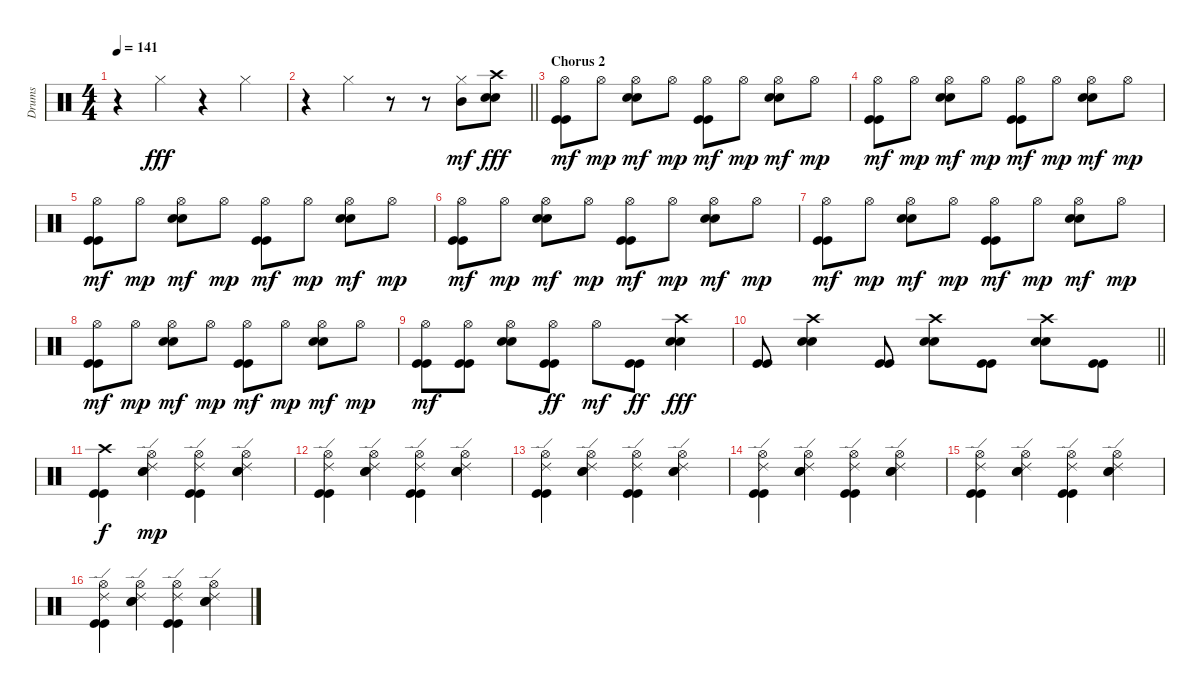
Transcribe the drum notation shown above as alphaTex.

\track ("Drums" "Drums") {instrument percussion}
\staff {score}
\articulation defaults
\ts (4 4)
\tempo 141
\clef neutral
\ks c
r.4{dy fff} "Hi-Hat (closed)".4 r.4 "Hi-Hat (closed)".4 |
\barLineRight lightlight
r.4 "Hi-Hat (closed)".4 r.8 r.8 ("Hi-Hat (closed)" "Mid Tom (hit)").8{dy mf} ("Crash high (hit)" "Snare (hit) 2" "Snare (hit) 2").8{dy fff} |
\section ("" "Chorus 2")
("Hi-Hat (open)" "Kick (hit)" "Kick (hit)").8{dy mf} "Hi-Hat (open)".8{dy mp} ("Hi-Hat (open)" "Snare (hit) 2" "Snare (hit) 2").8{dy mf} "Hi-Hat (open)".8{dy mp} ("Hi-Hat (open)" "Kick (hit)" "Kick (hit)").8{dy mf} "Hi-Hat (open)".8{dy mp} ("Hi-Hat (open)" "Snare (hit) 2" "Snare (hit) 2").8{dy mf} "Hi-Hat (open)".8{dy mp} |
("Hi-Hat (open)" "Kick (hit)" "Kick (hit)").8{dy mf} "Hi-Hat (open)".8{dy mp} ("Hi-Hat (open)" "Snare (hit) 2" "Snare (hit) 2").8{dy mf} "Hi-Hat (open)".8{dy mp} ("Hi-Hat (open)" "Kick (hit)" "Kick (hit)").8{dy mf} "Hi-Hat (open)".8{dy mp} ("Hi-Hat (open)" "Snare (hit) 2" "Snare (hit) 2").8{dy mf} "Hi-Hat (open)".8{dy mp} |
("Hi-Hat (open)" "Kick (hit)" "Kick (hit)").8{dy mf} "Hi-Hat (open)".8{dy mp} ("Hi-Hat (open)" "Snare (hit) 2" "Snare (hit) 2").8{dy mf} "Hi-Hat (open)".8{dy mp} ("Hi-Hat (open)" "Kick (hit)" "Kick (hit)").8{dy mf} "Hi-Hat (open)".8{dy mp} ("Hi-Hat (open)" "Snare (hit) 2" "Snare (hit) 2").8{dy mf} "Hi-Hat (open)".8{dy mp} |
("Hi-Hat (open)" "Kick (hit)" "Kick (hit)").8{dy mf} "Hi-Hat (open)".8{dy mp} ("Hi-Hat (open)" "Snare (hit) 2" "Snare (hit) 2").8{dy mf} "Hi-Hat (open)".8{dy mp} ("Hi-Hat (open)" "Kick (hit)" "Kick (hit)").8{dy mf} "Hi-Hat (open)".8{dy mp} ("Hi-Hat (open)" "Snare (hit) 2" "Snare (hit) 2").8{dy mf} "Hi-Hat (open)".8{dy mp} |
("Hi-Hat (open)" "Kick (hit)" "Kick (hit)").8{dy mf} "Hi-Hat (open)".8{dy mp} ("Hi-Hat (open)" "Snare (hit) 2" "Snare (hit) 2").8{dy mf} "Hi-Hat (open)".8{dy mp} ("Hi-Hat (open)" "Kick (hit)" "Kick (hit)").8{dy mf} "Hi-Hat (open)".8{dy mp} ("Hi-Hat (open)" "Snare (hit) 2" "Snare (hit) 2").8{dy mf} "Hi-Hat (open)".8{dy mp} |
("Hi-Hat (open)" "Kick (hit)" "Kick (hit)").8{dy mf} "Hi-Hat (open)".8{dy mp} ("Hi-Hat (open)" "Snare (hit) 2" "Snare (hit) 2").8{dy mf} "Hi-Hat (open)".8{dy mp} ("Hi-Hat (open)" "Kick (hit)" "Kick (hit)").8{dy mf} "Hi-Hat (open)".8{dy mp} ("Hi-Hat (open)" "Snare (hit) 2" "Snare (hit) 2").8{dy mf} "Hi-Hat (open)".8{dy mp} |
("Hi-Hat (open)" "Kick (hit)" "Kick (hit)").8{dy mf} ("Hi-Hat (open)" "Kick (hit)" "Kick (hit)").8 ("Hi-Hat (open)" "Snare (hit) 2" "Snare (hit) 2").8 ("Hi-Hat (open)" "Kick (hit)" "Kick (hit)").8{dy ff} "Hi-Hat (open)".8{dy mf} ("Kick (hit)" "Kick (hit)").8{dy ff} ("Crash high (hit)" "Snare (hit) 2" "Snare (hit) 2").4{dy fff} |
\barLineRight lightlight
("Kick (hit)" "Kick (hit)").8 ("Crash high (hit)" "Snare (hit) 2" "Snare (hit) 2").4 ("Kick (hit)" "Kick (hit)").8 ("Crash high (hit)" "Snare (hit) 2" "Snare (hit) 2").8 ("Kick (hit)" "Kick (hit)").8 ("Crash high (hit)" "Snare (hit) 2" "Snare (hit) 2").8 ("Kick (hit)" "Kick (hit)").8 |
("Crash high (hit)" "Kick (hit)" "Kick (hit)").4{dy f} ("Ride (edge) 2" "Hi-Hat (open)" "Snare (hit) 2" "Snare (hit) 2").4{dy mp} ("Ride (edge) 2" "Hi-Hat (open)" "Kick (hit)" "Kick (hit)").4 ("Ride (edge) 2" "Hi-Hat (open)" "Snare (hit) 2" "Snare (hit) 2").4 |
("Ride (edge) 2" "Hi-Hat (open)" "Kick (hit)" "Kick (hit)").4 ("Ride (edge) 2" "Hi-Hat (open)" "Snare (hit) 2" "Snare (hit) 2").4 ("Ride (edge) 2" "Hi-Hat (open)" "Kick (hit)" "Kick (hit)").4 ("Ride (edge) 2" "Hi-Hat (open)" "Snare (hit) 2" "Snare (hit) 2").4 |
("Ride (edge) 2" "Hi-Hat (open)" "Kick (hit)" "Kick (hit)").4 ("Ride (edge) 2" "Hi-Hat (open)" "Snare (hit) 2" "Snare (hit) 2").4 ("Ride (edge) 2" "Hi-Hat (open)" "Kick (hit)" "Kick (hit)").4 ("Ride (edge) 2" "Hi-Hat (open)" "Snare (hit) 2" "Snare (hit) 2").4 |
("Ride (edge) 2" "Hi-Hat (open)" "Kick (hit)" "Kick (hit)").4 ("Ride (edge) 2" "Hi-Hat (open)" "Snare (hit) 2" "Snare (hit) 2").4 ("Ride (edge) 2" "Hi-Hat (open)" "Kick (hit)" "Kick (hit)").4 ("Ride (edge) 2" "Hi-Hat (open)" "Snare (hit) 2" "Snare (hit) 2").4 |
("Ride (edge) 2" "Hi-Hat (open)" "Kick (hit)" "Kick (hit)").4 ("Ride (edge) 2" "Hi-Hat (open)" "Snare (hit) 2" "Snare (hit) 2").4 ("Ride (edge) 2" "Hi-Hat (open)" "Kick (hit)" "Kick (hit)").4 ("Ride (edge) 2" "Hi-Hat (open)" "Snare (hit) 2" "Snare (hit) 2").4 |
("Ride (edge) 2" "Hi-Hat (open)" "Kick (hit)" "Kick (hit)").4 ("Ride (edge) 2" "Hi-Hat (open)" "Snare (hit) 2" "Snare (hit) 2").4 ("Ride (edge) 2" "Hi-Hat (open)" "Kick (hit)" "Kick (hit)").4 ("Ride (edge) 2" "Hi-Hat (open)" "Snare (hit) 2" "Snare (hit) 2").4
